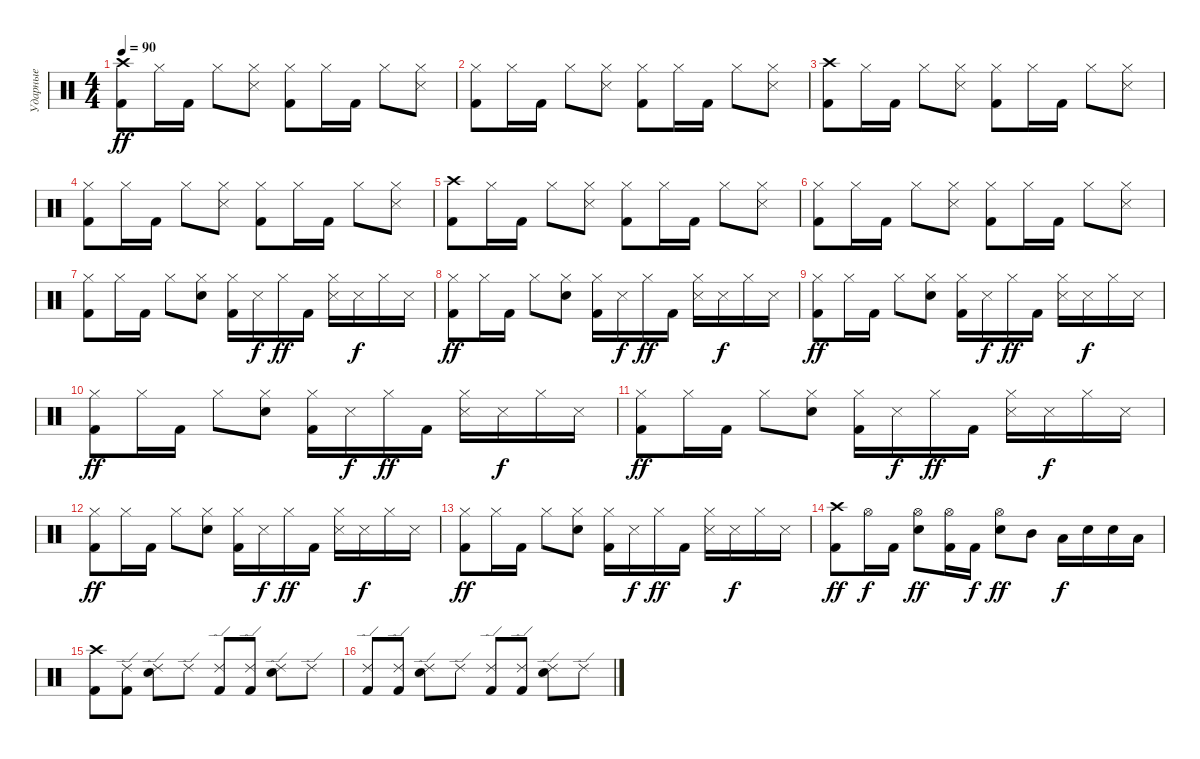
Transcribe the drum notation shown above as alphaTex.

\track ("Ударные" "Ударные") {instrument percussion}
\staff {score}
\articulation defaults
\ts (4 4)
\tempo 90
\clef neutral
\ks c
("Crash high (hit)" "Kick (hit) 2").8{dy ff} "Hi-Hat (closed)".16 "Kick (hit) 2".16 "Hi-Hat (closed)".8 ("Hi-Hat (closed)" "Snare (side stick) 3").8 ("Hi-Hat (closed)" "Kick (hit) 2").8 "Hi-Hat (closed)".16 "Kick (hit) 2".16 "Hi-Hat (closed)".8 ("Hi-Hat (closed)" "Snare (side stick) 3").8 |
("Hi-Hat (closed)" "Kick (hit) 2").8 "Hi-Hat (closed)".16 "Kick (hit) 2".16 "Hi-Hat (closed)".8 ("Hi-Hat (closed)" "Snare (side stick) 3").8 ("Hi-Hat (closed)" "Kick (hit) 2").8 "Hi-Hat (closed)".16 "Kick (hit) 2".16 "Hi-Hat (closed)".8 ("Hi-Hat (closed)" "Snare (side stick) 3").8 |
("Crash high (hit)" "Kick (hit) 2").8 "Hi-Hat (closed)".16 "Kick (hit) 2".16 "Hi-Hat (closed)".8 ("Hi-Hat (closed)" "Snare (side stick) 3").8 ("Hi-Hat (closed)" "Kick (hit) 2").8 "Hi-Hat (closed)".16 "Kick (hit) 2".16 "Hi-Hat (closed)".8 ("Hi-Hat (closed)" "Snare (side stick) 3").8 |
("Hi-Hat (closed)" "Kick (hit) 2").8 "Hi-Hat (closed)".16 "Kick (hit) 2".16 "Hi-Hat (closed)".8 ("Hi-Hat (closed)" "Snare (side stick) 3").8 ("Hi-Hat (closed)" "Kick (hit) 2").8 "Hi-Hat (closed)".16 "Kick (hit) 2".16 "Hi-Hat (closed)".8 ("Hi-Hat (closed)" "Snare (side stick) 3").8 |
("Crash high (hit)" "Kick (hit) 2").8 "Hi-Hat (closed)".16 "Kick (hit) 2".16 "Hi-Hat (closed)".8 ("Hi-Hat (closed)" "Snare (side stick) 3").8 ("Hi-Hat (closed)" "Kick (hit) 2").8 "Hi-Hat (closed)".16 "Kick (hit) 2".16 "Hi-Hat (closed)".8 ("Hi-Hat (closed)" "Snare (side stick) 3").8 |
("Hi-Hat (closed)" "Kick (hit) 2").8 "Hi-Hat (closed)".16 "Kick (hit) 2".16 "Hi-Hat (closed)".8 ("Hi-Hat (closed)" "Snare (side stick) 3").8 ("Hi-Hat (closed)" "Kick (hit) 2").8 "Hi-Hat (closed)".16 "Kick (hit) 2".16 "Hi-Hat (closed)".8 ("Hi-Hat (closed)" "Snare (side stick) 3").8 |
("Hi-Hat (closed)" "Kick (hit) 2").8 "Hi-Hat (closed)".16 "Kick (hit) 2".16 "Hi-Hat (closed)".8 ("Hi-Hat (closed)" "Electric Snare (hit)").8 ("Hi-Hat (closed)" "Kick (hit) 2").16 "Snare (side stick) 3".16{dy f} "Hi-Hat (closed)".16{dy ff} "Kick (hit) 2".16 ("Hi-Hat (closed)" "Snare (side stick) 3").16 "Snare (side stick) 3".16{dy f} "Hi-Hat (closed)".16 "Snare (side stick) 3".16 |
("Hi-Hat (closed)" "Kick (hit) 2").8{dy ff} "Hi-Hat (closed)".16 "Kick (hit) 2".16 "Hi-Hat (closed)".8 ("Hi-Hat (closed)" "Electric Snare (hit)").8 ("Hi-Hat (closed)" "Kick (hit) 2").16 "Snare (side stick) 3".16{dy f} "Hi-Hat (closed)".16{dy ff} "Kick (hit) 2".16 ("Hi-Hat (closed)" "Snare (side stick) 3").16 "Snare (side stick) 3".16{dy f} "Hi-Hat (closed)".16 "Snare (side stick) 3".16 |
("Hi-Hat (closed)" "Kick (hit) 2").8{dy ff} "Hi-Hat (closed)".16 "Kick (hit) 2".16 "Hi-Hat (closed)".8 ("Hi-Hat (closed)" "Electric Snare (hit)").8 ("Hi-Hat (closed)" "Kick (hit) 2").16 "Snare (side stick) 3".16{dy f} "Hi-Hat (closed)".16{dy ff} "Kick (hit) 2".16 ("Hi-Hat (closed)" "Snare (side stick) 3").16 "Snare (side stick) 3".16{dy f} "Hi-Hat (closed)".16 "Snare (side stick) 3".16 |
("Hi-Hat (closed)" "Kick (hit) 2").8{dy ff} "Hi-Hat (closed)".16 "Kick (hit) 2".16 "Hi-Hat (closed)".8 ("Hi-Hat (closed)" "Electric Snare (hit)").8 ("Hi-Hat (closed)" "Kick (hit) 2").16 "Snare (side stick) 3".16{dy f} "Hi-Hat (closed)".16{dy ff} "Kick (hit) 2".16 ("Hi-Hat (closed)" "Snare (side stick) 3").16 "Snare (side stick) 3".16{dy f} "Hi-Hat (closed)".16 "Snare (side stick) 3".16 |
("Hi-Hat (closed)" "Kick (hit) 2").8{dy ff} "Hi-Hat (closed)".16 "Kick (hit) 2".16 "Hi-Hat (closed)".8 ("Hi-Hat (closed)" "Electric Snare (hit)").8 ("Hi-Hat (closed)" "Kick (hit) 2").16 "Snare (side stick) 3".16{dy f} "Hi-Hat (closed)".16{dy ff} "Kick (hit) 2".16 ("Hi-Hat (closed)" "Snare (side stick) 3").16 "Snare (side stick) 3".16{dy f} "Hi-Hat (closed)".16 "Snare (side stick) 3".16 |
("Hi-Hat (closed)" "Kick (hit) 2").8{dy ff} "Hi-Hat (closed)".16 "Kick (hit) 2".16 "Hi-Hat (closed)".8 ("Hi-Hat (closed)" "Electric Snare (hit)").8 ("Hi-Hat (closed)" "Kick (hit) 2").16 "Snare (side stick) 3".16{dy f} "Hi-Hat (closed)".16{dy ff} "Kick (hit) 2".16 ("Hi-Hat (closed)" "Snare (side stick) 3").16 "Snare (side stick) 3".16{dy f} "Hi-Hat (closed)".16 "Snare (side stick) 3".16 |
("Hi-Hat (closed)" "Kick (hit) 2").8{dy ff} "Hi-Hat (closed)".16 "Kick (hit) 2".16 "Hi-Hat (closed)".8 ("Hi-Hat (closed)" "Electric Snare (hit)").8 ("Hi-Hat (closed)" "Kick (hit) 2").16 "Snare (side stick) 3".16{dy f} "Hi-Hat (closed)".16{dy ff} "Kick (hit) 2".16 ("Hi-Hat (closed)" "Snare (side stick) 3").16 "Snare (side stick) 3".16{dy f} "Hi-Hat (closed)".16 "Snare (side stick) 3".16 |
("Kick (hit) 2" "Crash high (hit)").8{dy ff} "Hi-Hat (open)".16{dy f} "Kick (hit) 2".16 ("Electric Snare (hit)" "Hi-Hat (open)").8{dy ff} ("Kick (hit) 2" "Hi-Hat (open)").16 "Kick (hit) 2".16{dy f} ("Electric Snare (hit)" "Hi-Hat (open)").8{dy ff} "Mid Tom (hit)".8 "Low Tom (hit)".16{dy f} "Electric Snare (hit)".16 "Electric Snare (hit)".16 "Low Tom (hit)".16 |
("Kick (hit) 2" "Crash high (hit)").8 ("Kick (hit) 2" "Ride (edge) 2").8 ("Electric Snare (hit)" "Ride (edge) 2").8 "Ride (edge) 2".8 ("Kick (hit) 2" "Ride (edge) 2").8 ("Kick (hit) 2" "Ride (edge) 2").8 ("Electric Snare (hit)" "Ride (edge) 2").8 "Ride (edge) 2".8 |
("Kick (hit) 2" "Ride (edge) 2").8 ("Kick (hit) 2" "Ride (edge) 2").8 ("Electric Snare (hit)" "Ride (edge) 2").8 "Ride (edge) 2".8 ("Kick (hit) 2" "Ride (edge) 2").8 ("Kick (hit) 2" "Ride (edge) 2").8 ("Electric Snare (hit)" "Ride (edge) 2").8 "Ride (edge) 2".8
